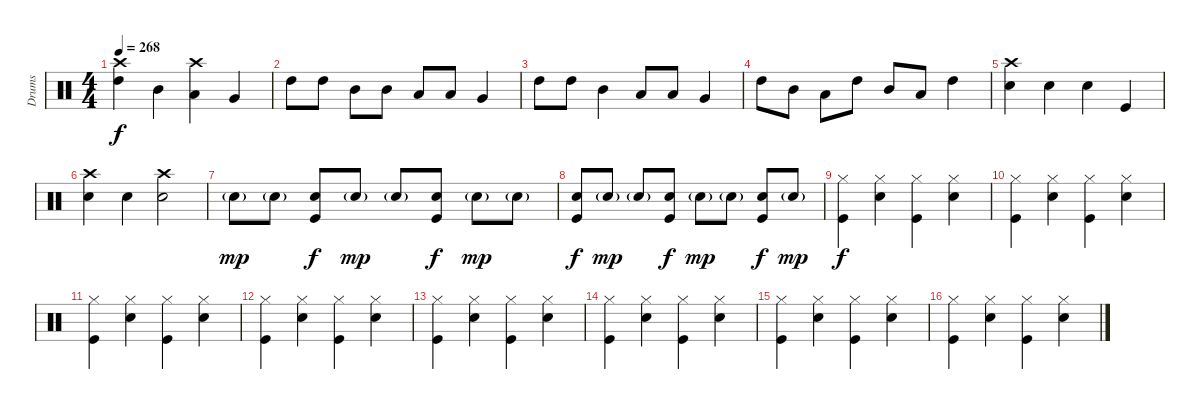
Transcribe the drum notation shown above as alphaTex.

\track ("Drums" "Drums") {instrument percussion}
\staff {score}
\articulation defaults
\ts (4 4)
\tempo 268
\clef neutral
\ks c
("Crash high (hit)" "High Tom (hit)").4{dy f} "Mid Tom (hit)".4 ("Crash high (hit)" "Low Tom (hit)").4 "Very Low Tom (hit)".4 |
"High Tom (hit)".8 "High Tom (hit)".8 "Mid Tom (hit)".8 "Mid Tom (hit)".8 "Low Tom (hit)".8 "Low Tom (hit)".8 "Very Low Tom (hit)".4 |
"High Tom (hit)".8 "High Tom (hit)".8 "Mid Tom (hit)".4 "Low Tom (hit)".8 "Low Tom (hit)".8 "Very Low Tom (hit)".4 |
"High Tom (hit)".8 "Mid Tom (hit)".8 "Low Tom (hit)".8 "High Tom (hit)".8 "Mid Tom (hit)".8 "Low Tom (hit)".8 "High Tom (hit)".4 |
("Crash high (hit)" "Electric Snare (hit)").4 "Electric Snare (hit)".4 "Electric Snare (hit)".4 "Kick (hit)".4 |
("Crash high (hit)" "Electric Snare (hit)").4 "Electric Snare (hit)".4 ("Crash high (hit)" "Electric Snare (hit)").2 |
"Electric Snare (hit)"{g}.8{dy mp} "Electric Snare (hit)"{g}.8 ("Electric Snare (hit)" "Kick (hit)").8{dy f} "Electric Snare (hit)"{g}.8{dy mp} "Electric Snare (hit)"{g}.8 ("Electric Snare (hit)" "Kick (hit)").8{dy f} "Electric Snare (hit)"{g}.8{dy mp} "Electric Snare (hit)"{g}.8 |
("Electric Snare (hit)" "Kick (hit)").8{dy f} "Electric Snare (hit)"{g}.8{dy mp} "Electric Snare (hit)"{g}.8 ("Electric Snare (hit)" "Kick (hit)").8{dy f} "Electric Snare (hit)"{g}.8{dy mp} "Electric Snare (hit)"{g}.8 ("Electric Snare (hit)" "Kick (hit)").8{dy f} "Electric Snare (hit)"{g}.8{dy mp} |
("Hi-Hat (closed)" "Kick (hit)").4{dy f} ("Hi-Hat (closed)" "Electric Snare (hit)").4 ("Hi-Hat (closed)" "Kick (hit)").4 ("Hi-Hat (closed)" "Electric Snare (hit)").4 |
("Hi-Hat (closed)" "Kick (hit)").4 ("Hi-Hat (closed)" "Electric Snare (hit)").4 ("Hi-Hat (closed)" "Kick (hit)").4 ("Hi-Hat (closed)" "Electric Snare (hit)").4 |
("Hi-Hat (closed)" "Kick (hit)").4 ("Hi-Hat (closed)" "Electric Snare (hit)").4 ("Hi-Hat (closed)" "Kick (hit)").4 ("Hi-Hat (closed)" "Electric Snare (hit)").4 |
("Hi-Hat (closed)" "Kick (hit)").4 ("Hi-Hat (closed)" "Electric Snare (hit)").4 ("Hi-Hat (closed)" "Kick (hit)").4 ("Hi-Hat (closed)" "Electric Snare (hit)").4 |
("Hi-Hat (closed)" "Kick (hit)").4 ("Hi-Hat (closed)" "Electric Snare (hit)").4 ("Hi-Hat (closed)" "Kick (hit)").4 ("Hi-Hat (closed)" "Electric Snare (hit)").4 |
("Hi-Hat (closed)" "Kick (hit)").4 ("Hi-Hat (closed)" "Electric Snare (hit)").4 ("Hi-Hat (closed)" "Kick (hit)").4 ("Hi-Hat (closed)" "Electric Snare (hit)").4 |
("Hi-Hat (closed)" "Kick (hit)").4 ("Hi-Hat (closed)" "Electric Snare (hit)").4 ("Hi-Hat (closed)" "Kick (hit)").4 ("Hi-Hat (closed)" "Electric Snare (hit)").4 |
("Hi-Hat (closed)" "Kick (hit)").4 ("Hi-Hat (closed)" "Electric Snare (hit)").4 ("Hi-Hat (closed)" "Kick (hit)").4 ("Hi-Hat (closed)" "Electric Snare (hit)").4
